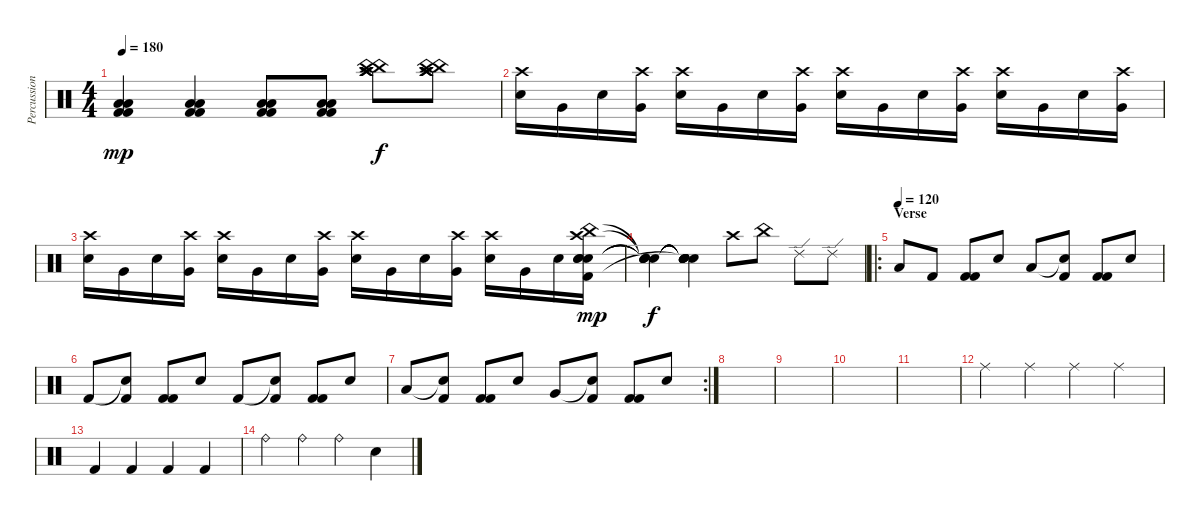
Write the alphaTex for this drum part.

\track ("Percussions" "Percussion") {instrument percussion}
\staff {score}
\articulation defaults
\ts (4 4)
\tempo 180
\clef neutral
\ks c
("Low Tom (hit)" "Low Floor Tom (hit)" "Kick (hit) 2" "Kick (hit) 2").4{dy mp} ("Low Tom (hit)" "Low Floor Tom (hit)" "Kick (hit) 2" "Kick (hit) 2").4 ("Low Tom (hit)" "Low Floor Tom (hit)" "Kick (hit) 2" "Kick (hit) 2").8 ("Low Tom (hit)" "Low Floor Tom (hit)" "Kick (hit) 2" "Kick (hit) 2").8 ("Crash high (hit)" "Crash high (hit)" "Crash high (hit)" "China (hit)" "China (hit)").8{dy f} ("Crash high (hit)" "Crash high (hit)" "Crash high (hit)" "China (hit)" "China (hit)").8 |
("Electric Snare (hit)" "Crash high (hit)").16 "Very Low Tom (hit)".16 "Electric Snare (hit)".16 ("Very Low Tom (hit)" "Crash high (hit)").16 ("Electric Snare (hit)" "Crash high (hit)").16 "Very Low Tom (hit)".16 "Electric Snare (hit)".16 ("Very Low Tom (hit)" "Crash high (hit)").16 ("Electric Snare (hit)" "Crash high (hit)").16 "Very Low Tom (hit)".16 "Electric Snare (hit)".16 ("Very Low Tom (hit)" "Crash high (hit)").16 ("Electric Snare (hit)" "Crash high (hit)").16 "Very Low Tom (hit)".16 "Electric Snare (hit)".16 ("Very Low Tom (hit)" "Crash high (hit)").16{bd 240} |
("Electric Snare (hit)" "Crash high (hit)").16 "Very Low Tom (hit)".16 "Electric Snare (hit)".16 ("Very Low Tom (hit)" "Crash high (hit)").16 ("Electric Snare (hit)" "Crash high (hit)").16 "Very Low Tom (hit)".16 "Electric Snare (hit)".16 ("Very Low Tom (hit)" "Crash high (hit)").16 ("Electric Snare (hit)" "Crash high (hit)").16 "Very Low Tom (hit)".16 "Electric Snare (hit)".16 ("Very Low Tom (hit)" "Crash high (hit)").16 ("Electric Snare (hit)" "Crash high (hit)").16 "Very Low Tom (hit)".16 "Electric Snare (hit)".16 ("China (hit)" "Crash high (hit)" "Electric Snare (hit)" "Electric Snare (hit)" "Electric Snare (hit)" "Kick (hit) 2").16{bd 240 dy mp} |
("Snare (hit)"{t} "Snare (hit)"{t} "Snare (hit)"{t} "Snare (hit)"{t} "Snare (hit)"{t}).4{dy f} ("Snare (hit)"{t} "Snare (hit)"{t} "Snare (hit)"{t} "Snare (hit)"{t} "Snare (hit)"{t} "Snare (hit)"{t}).4 "Crash high (hit)".8 "China (hit)".8 "Ride (edge) 2".8 "Ride (edge) 2".8 |
\ro
\section ("" "Verse")
\tempo (120)
"Low Tom (hit)".8 "Kick (hit) 2".8 ("Kick (hit) 2" "Kick (hit) 2").8 "Electric Snare (hit)".8 "Low Tom (hit)".8 ("Snare (hit)"{t} "Kick (hit) 2").8 ("Kick (hit) 2" "Kick (hit) 2").8 "Snare (hit) 2".8 |
"Kick (hit) 2".8 ("Snare (hit)"{t} "Kick (hit) 2").8 ("Kick (hit) 2" "Kick (hit) 2").8 "Electric Snare (hit)".8 "Kick (hit) 2".8 ("Snare (hit)"{t} "Kick (hit) 2").8 ("Kick (hit) 2" "Kick (hit) 2").8 "Snare (hit) 2".8 |
\rc 2 "Low Tom (hit)".8
("Snare (hit)"{t} "Kick (hit) 2").8 ("Kick (hit) 2" "Kick (hit) 2").8 "Electric Snare (hit)".8 "Very Low Tom (hit)".8 ("Snare (hit)"{t} "Kick (hit) 2").8 ("Kick (hit) 2" "Kick (hit) 2").8 "Snare (hit) 2".8 |
\section ("" "")
|
|
|
|
"Ride (middle)".4 "Ride (middle)".4 "Ride (middle)".4 "Ride (middle)".4 |
"Kick (hit) 2".4 "Kick (hit) 2".4 "Kick (hit) 2".4 "Kick (hit) 2".4 |
"Ride (bell)".4 "Ride (bell)".4 "Ride (bell)".4 "Electric Snare (hit)".4
